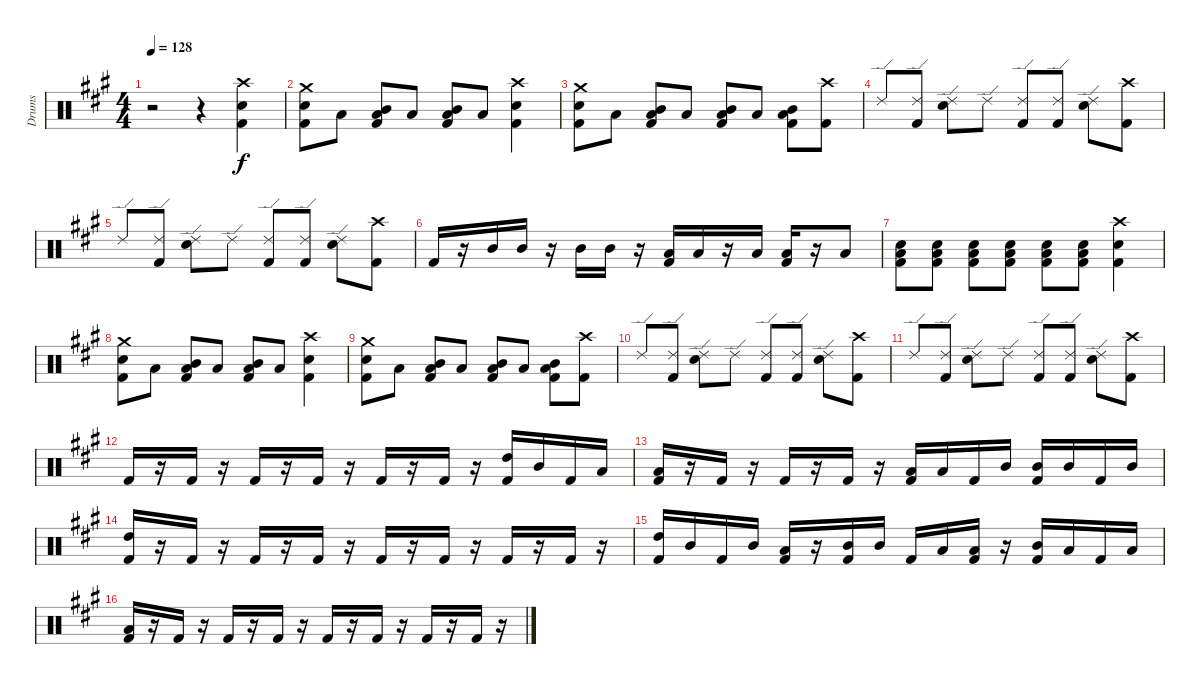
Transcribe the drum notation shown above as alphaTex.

\track ("Drums" "Drums") {instrument percussion}
\staff {score}
\articulation defaults
\ts (4 4)
\tempo 128
\clef neutral
\ks a
r.2{dy f} r.4 ("Crash high (hit)" "Snare (hit) 2" "Kick (hit) 2").4 |
("Crash medium (hit)" "Snare (hit) 2" "Kick (hit) 2").8 "Low Tom (hit)".8 ("Mid Tom (hit)" "Low Tom (hit)" "Kick (hit) 2").8 "Low Tom (hit)".8 ("Mid Tom (hit)" "Low Tom (hit)" "Kick (hit) 2").8 "Low Tom (hit)".8 ("Crash high (hit)" "Snare (hit) 2" "Kick (hit) 2").4 |
("Crash medium (hit)" "Snare (hit) 2" "Kick (hit) 2").8 "Low Tom (hit)".8 ("Mid Tom (hit)" "Low Tom (hit)" "Kick (hit) 2").8 "Low Tom (hit)".8 ("Mid Tom (hit)" "Low Tom (hit)" "Kick (hit) 2").8 "Low Tom (hit)".8 ("Mid Tom (hit)" "Low Tom (hit)" "Kick (hit) 2").8 ("Crash high (hit)" "Kick (hit) 2").8 |
"Ride (edge) 2".8 ("Ride (edge) 2" "Kick (hit) 2").8 ("Ride (edge) 2" "Snare (hit) 2").8 "Ride (edge) 2".8 ("Ride (edge) 2" "Kick (hit) 2").8 ("Ride (edge) 2" "Kick (hit) 2").8 ("Ride (edge) 2" "Snare (hit) 2").8 ("Crash high (hit)" "Kick (hit) 2").8 |
"Ride (edge) 2".8 ("Ride (edge) 2" "Kick (hit) 2").8 ("Ride (edge) 2" "Snare (hit) 2").8 "Ride (edge) 2".8 ("Ride (edge) 2" "Kick (hit) 2").8 ("Ride (edge) 2" "Kick (hit) 2").8 ("Ride (edge) 2" "Snare (hit) 2").8 ("Crash high (hit)" "Kick (hit) 2").8 |
"Kick (hit) 2".16 r.16 "Mid Tom (hit)".16 "Mid Tom (hit)".16 r.16 "Mid Tom (hit)".16 "Mid Tom (hit)".16 r.16 ("Low Tom (hit)" "Kick (hit) 2").16 "Low Tom (hit)".16 r.16 "Low Tom (hit)".16 ("Low Tom (hit)" "Kick (hit) 2").16 r.16 "Low Tom (hit)".8 |
("Snare (hit) 2" "Low Tom (hit)" "Kick (hit) 2").8 ("Snare (hit) 2" "Low Tom (hit)" "Kick (hit) 2").8 ("Snare (hit) 2" "Low Tom (hit)" "Kick (hit) 2").8 ("Snare (hit) 2" "Low Tom (hit)" "Kick (hit) 2").8 ("Snare (hit) 2" "Low Tom (hit)" "Kick (hit) 2").8 ("Snare (hit) 2" "Low Tom (hit)" "Kick (hit) 2").8 ("Crash high (hit)" "Snare (hit) 2" "Kick (hit) 2").4 |
("Crash medium (hit)" "Snare (hit) 2" "Kick (hit) 2").8 "Low Tom (hit)".8 ("Mid Tom (hit)" "Low Tom (hit)" "Kick (hit) 2").8 "Low Tom (hit)".8 ("Mid Tom (hit)" "Low Tom (hit)" "Kick (hit) 2").8 "Low Tom (hit)".8 ("Crash high (hit)" "Snare (hit) 2" "Kick (hit) 2").4 |
("Crash medium (hit)" "Snare (hit) 2" "Kick (hit) 2").8 "Low Tom (hit)".8 ("Mid Tom (hit)" "Low Tom (hit)" "Kick (hit) 2").8 "Low Tom (hit)".8 ("Mid Tom (hit)" "Low Tom (hit)" "Kick (hit) 2").8 "Low Tom (hit)".8 ("Mid Tom (hit)" "Low Tom (hit)" "Kick (hit) 2").8 ("Crash high (hit)" "Kick (hit) 2").8 |
"Ride (edge) 2".8 ("Ride (edge) 2" "Kick (hit) 2").8 ("Ride (edge) 2" "Snare (hit) 2").8 "Ride (edge) 2".8 ("Ride (edge) 2" "Kick (hit) 2").8 ("Ride (edge) 2" "Kick (hit) 2").8 ("Ride (edge) 2" "Snare (hit) 2").8 ("Crash high (hit)" "Kick (hit) 2").8 |
"Ride (edge) 2".8 ("Ride (edge) 2" "Kick (hit) 2").8 ("Ride (edge) 2" "Snare (hit) 2").8 "Ride (edge) 2".8 ("Ride (edge) 2" "Kick (hit) 2").8 ("Ride (edge) 2" "Kick (hit) 2").8 ("Ride (edge) 2" "Snare (hit) 2").8 ("Crash high (hit)" "Kick (hit) 2").8 |
"Kick (hit) 2".16 r.16 "Kick (hit) 2".16 r.16 "Kick (hit) 2".16 r.16 "Kick (hit) 2".16 r.16 "Kick (hit) 2".16 r.16 "Kick (hit) 2".16 r.16 ("High Tom (hit)" "Kick (hit) 2").16 "Mid Tom (hit)".16 "Kick (hit) 2".16 "Low Tom (hit)".16 |
("Low Tom (hit)" "Kick (hit) 2").16 r.16 "Kick (hit) 2".16 r.16 "Kick (hit) 2".16 r.16 "Kick (hit) 2".16 r.16 ("Low Tom (hit)" "Kick (hit) 2").16 "Low Tom (hit)".16 "Kick (hit) 2".16 "Mid Tom (hit)".16 ("Mid Tom (hit)" "Kick (hit) 2").16 "Mid Tom (hit)".16 "Kick (hit) 2".16 "Mid Tom (hit)".16 |
("High Tom (hit)" "Kick (hit) 2").16 r.16 "Kick (hit) 2".16 r.16 "Kick (hit) 2".16 r.16 "Kick (hit) 2".16 r.16 "Kick (hit) 2".16 r.16 "Kick (hit) 2".16 r.16 "Kick (hit) 2".16 r.16 "Kick (hit) 2".16 r.16 |
("High Tom (hit)" "Kick (hit) 2").16 "Mid Tom (hit)".16 "Kick (hit) 2".16 "Mid Tom (hit)".16 ("Low Tom (hit)" "Kick (hit) 2").16 r.16 ("Mid Tom (hit)" "Kick (hit) 2").16 "Mid Tom (hit)".16 "Kick (hit) 2".16 "Low Tom (hit)".16 ("Low Tom (hit)" "Kick (hit) 2").16 r.16 ("Mid Tom (hit)" "Kick (hit) 2").16 "Low Tom (hit)".16 "Kick (hit) 2".16 "Low Tom (hit)".16 |
("Low Tom (hit)" "Kick (hit) 2").16 r.16 "Kick (hit) 2".16 r.16 "Kick (hit) 2".16 r.16 "Kick (hit) 2".16 r.16 "Kick (hit) 2".16 r.16 "Kick (hit) 2".16 r.16 "Kick (hit) 2".16 r.16 "Kick (hit) 2".16 r.16
